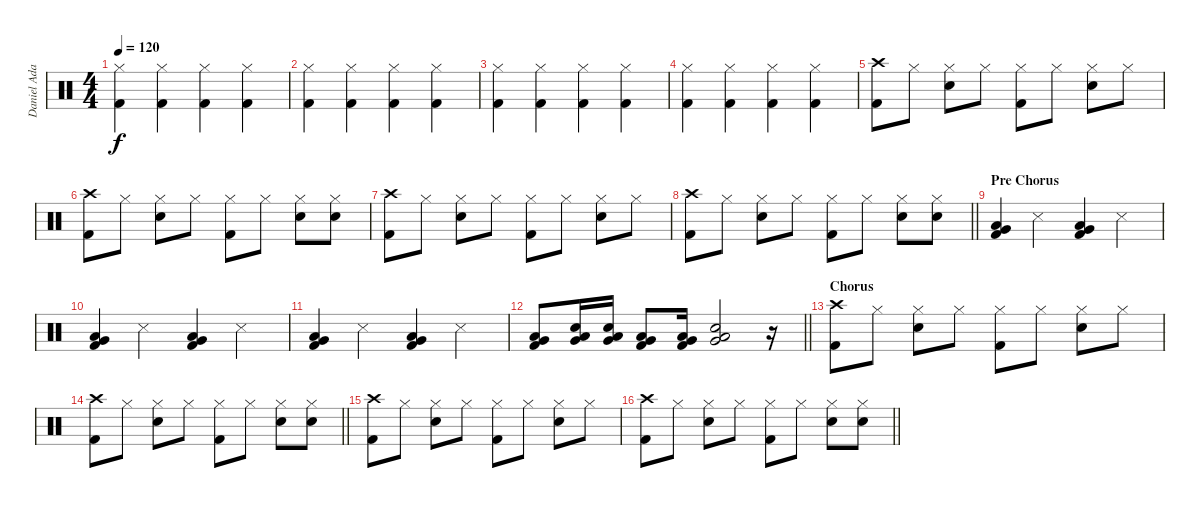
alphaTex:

\track ("Daniel Adair" "Daniel Ada") {instrument percussion}
\staff {score}
\articulation defaults
\ts (4 4)
\tempo 120
\clef neutral
\ks c
("Hi-Hat (closed)" "Kick (hit) 2").4{dy f} ("Hi-Hat (closed)" "Kick (hit) 2").4 ("Hi-Hat (closed)" "Kick (hit) 2").4 ("Hi-Hat (closed)" "Kick (hit) 2").4 |
("Hi-Hat (closed)" "Kick (hit) 2").4 ("Hi-Hat (closed)" "Kick (hit) 2").4 ("Hi-Hat (closed)" "Kick (hit) 2").4 ("Hi-Hat (closed)" "Kick (hit) 2").4 |
("Hi-Hat (closed)" "Kick (hit) 2").4 ("Hi-Hat (closed)" "Kick (hit) 2").4 ("Hi-Hat (closed)" "Kick (hit) 2").4 ("Hi-Hat (closed)" "Kick (hit) 2").4 |
("Hi-Hat (closed)" "Kick (hit) 2").4 ("Hi-Hat (closed)" "Kick (hit) 2").4 ("Hi-Hat (closed)" "Kick (hit) 2").4 ("Hi-Hat (closed)" "Kick (hit) 2").4 |
("Crash high (hit)" "Kick (hit) 2").8 "Hi-Hat (closed)".8 ("Hi-Hat (closed)" "Electric Snare (hit)").8 "Hi-Hat (closed)".8 ("Hi-Hat (closed)" "Kick (hit) 2").8 "Hi-Hat (closed)".8 ("Hi-Hat (closed)" "Electric Snare (hit)").8 "Hi-Hat (closed)".8 |
("Crash high (hit)" "Kick (hit) 2").8 "Hi-Hat (closed)".8 ("Hi-Hat (closed)" "Electric Snare (hit)").8 "Hi-Hat (closed)".8 ("Hi-Hat (closed)" "Kick (hit) 2").8 "Hi-Hat (closed)".8 ("Hi-Hat (closed)" "Electric Snare (hit)").8 ("Hi-Hat (closed)" "Electric Snare (hit)").8 |
("Crash high (hit)" "Kick (hit) 2").8 "Hi-Hat (closed)".8 ("Hi-Hat (closed)" "Electric Snare (hit)").8 "Hi-Hat (closed)".8 ("Hi-Hat (closed)" "Kick (hit) 2").8 "Hi-Hat (closed)".8 ("Hi-Hat (closed)" "Electric Snare (hit)").8 "Hi-Hat (closed)".8 |
\barLineRight lightlight
("Crash high (hit)" "Kick (hit) 2").8 "Hi-Hat (closed)".8 ("Hi-Hat (closed)" "Electric Snare (hit)").8 "Hi-Hat (closed)".8 ("Hi-Hat (closed)" "Kick (hit) 2").8 "Hi-Hat (closed)".8 ("Hi-Hat (closed)" "Electric Snare (hit)").8 ("Hi-Hat (closed)" "Electric Snare (hit)").8 |
\section ("" "Pre Chorus")
("Low Floor Tom (hit)" "Very Low Tom (hit)" "Kick (hit) 2").4 "Snare (side stick) 3".4 ("Low Floor Tom (hit)" "Very Low Tom (hit)" "Kick (hit) 2").4 "Snare (side stick) 3".4 |
("Low Floor Tom (hit)" "Very Low Tom (hit)" "Kick (hit) 2").4 "Snare (side stick) 3".4 ("Low Floor Tom (hit)" "Very Low Tom (hit)" "Kick (hit) 2").4 "Snare (side stick) 3".4 |
("Low Floor Tom (hit)" "Very Low Tom (hit)" "Kick (hit) 2").4 "Snare (side stick) 3".4 ("Low Floor Tom (hit)" "Very Low Tom (hit)" "Kick (hit) 2").4 "Snare (side stick) 3".4 |
\barLineRight lightlight
("Low Floor Tom (hit)" "Very Low Tom (hit)" "Kick (hit) 2").8 ("Very Low Tom (hit)" "Low Floor Tom (hit)" "Electric Snare (hit)").16 ("Very Low Tom (hit)" "Low Floor Tom (hit)" "Electric Snare (hit)").16 ("Very Low Tom (hit)" "Low Floor Tom (hit)" "Kick (hit) 2").8 ("Low Floor Tom (hit)" "Very Low Tom (hit)" "Kick (hit) 2").16 ("Low Floor Tom (hit)" "Very Low Tom (hit)" "Electric Snare (hit)").2 r.16 |
\section ("" "Chorus")
("Crash high (hit)" "Kick (hit) 2").8 "Hi-Hat (closed)".8 ("Hi-Hat (closed)" "Electric Snare (hit)").8 "Hi-Hat (closed)".8 ("Hi-Hat (closed)" "Kick (hit) 2").8 "Hi-Hat (closed)".8 ("Hi-Hat (closed)" "Electric Snare (hit)").8 "Hi-Hat (closed)".8 |
\barLineRight lightlight
("Crash high (hit)" "Kick (hit) 2").8 "Hi-Hat (closed)".8 ("Hi-Hat (closed)" "Electric Snare (hit)").8 "Hi-Hat (closed)".8 ("Hi-Hat (closed)" "Kick (hit) 2").8 "Hi-Hat (closed)".8 ("Hi-Hat (closed)" "Electric Snare (hit)").8 ("Hi-Hat (closed)" "Electric Snare (hit)").8 |
("Crash high (hit)" "Kick (hit) 2").8 "Hi-Hat (closed)".8 ("Hi-Hat (closed)" "Electric Snare (hit)").8 "Hi-Hat (closed)".8 ("Hi-Hat (closed)" "Kick (hit) 2").8 "Hi-Hat (closed)".8 ("Hi-Hat (closed)" "Electric Snare (hit)").8 "Hi-Hat (closed)".8 |
\barLineRight lightlight
("Crash high (hit)" "Kick (hit) 2").8 "Hi-Hat (closed)".8 ("Hi-Hat (closed)" "Electric Snare (hit)").8 "Hi-Hat (closed)".8 ("Hi-Hat (closed)" "Kick (hit) 2").8 "Hi-Hat (closed)".8 ("Hi-Hat (closed)" "Electric Snare (hit)").8 ("Hi-Hat (closed)" "Electric Snare (hit)").8
